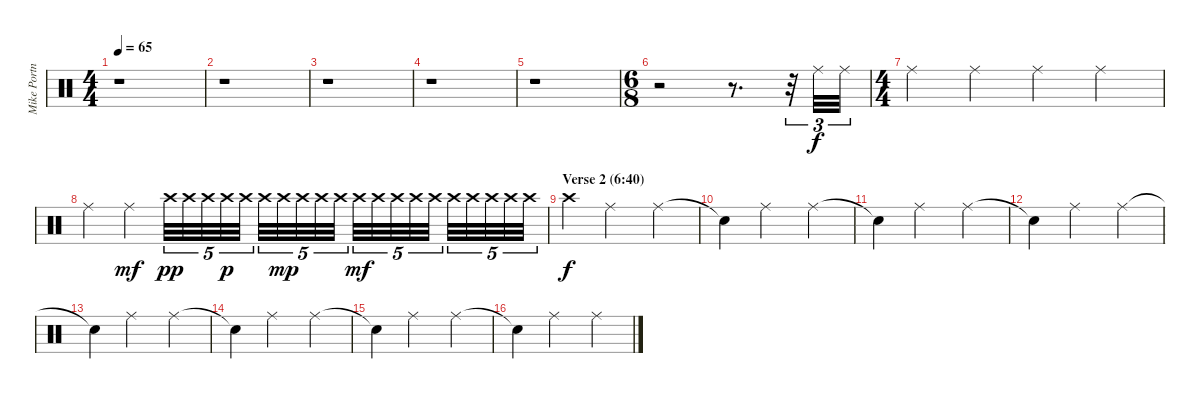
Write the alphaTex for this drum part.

\track ("Mike Portnoy" "Mike Portn") {instrument percussion}
\staff {score}
\articulation defaults
\ts (4 4)
\tempo 65
\clef neutral
\ks c
r.1{dy f} |
r.1 |
r.1 |
r.1 |
r.1 |
\ts (6 8)
r.2 r.8{d} r.32{tu (3 2)} "Ride (middle)".32{tu (3 2)} "Ride (middle)".32{tu (3 2)} |
\ts (4 4)
"Ride (middle)".4 "Ride (middle)".4 "Ride (middle)".4 "Ride (middle)".4 |
"Ride (middle)".4 "Ride (middle)".4{dy mf} "Crash high (hit)".32{tu (5 4) dy pp} "Crash high (hit)".32{tu (5 4)} "Crash high (hit)".32{tu (5 4)} "Crash high (hit)".32{tu (5 4) dy p} "Crash high (hit)".32{tu (5 4)} "Crash high (hit)".32{tu (5 4)} "Crash high (hit)".32{tu (5 4) dy mp} "Crash high (hit)".32{tu (5 4)} "Crash high (hit)".32{tu (5 4)} "Crash high (hit)".32{tu (5 4)} "Crash high (hit)".32{tu (5 4) dy mf} "Crash high (hit)".32{tu (5 4)} "Crash high (hit)".32{tu (5 4)} "Crash high (hit)".32{tu (5 4)} "Crash high (hit)".32{tu (5 4)} "Crash high (hit)".32{tu (5 4)} "Crash high (hit)".32{tu (5 4)} "Crash high (hit)".32{tu (5 4)} "Crash high (hit)".32{tu (5 4)} "Crash high (hit)".32{tu (5 4)} |
\section ("" "Verse 2 (6:40)")
"Crash high (hit)".4{dy f} "Ride (middle)".2 "Ride (middle)".4 |
"Snare (hit)"{t}.4 "Ride (middle)".2 "Ride (middle)".4 |
"Snare (hit)"{t}.4 "Ride (middle)".2 "Ride (middle)".4 |
"Snare (hit)"{t}.4 "Ride (middle)".2 "Ride (middle)".4 |
"Snare (hit)"{t}.4 "Ride (middle)".2 "Ride (middle)".4 |
"Snare (hit)"{t}.4 "Ride (middle)".2 "Ride (middle)".4 |
"Snare (hit)"{t}.4 "Ride (middle)".2 "Ride (middle)".4 |
"Snare (hit)"{t}.4 "Ride (middle)".2 "Ride (middle)".4
